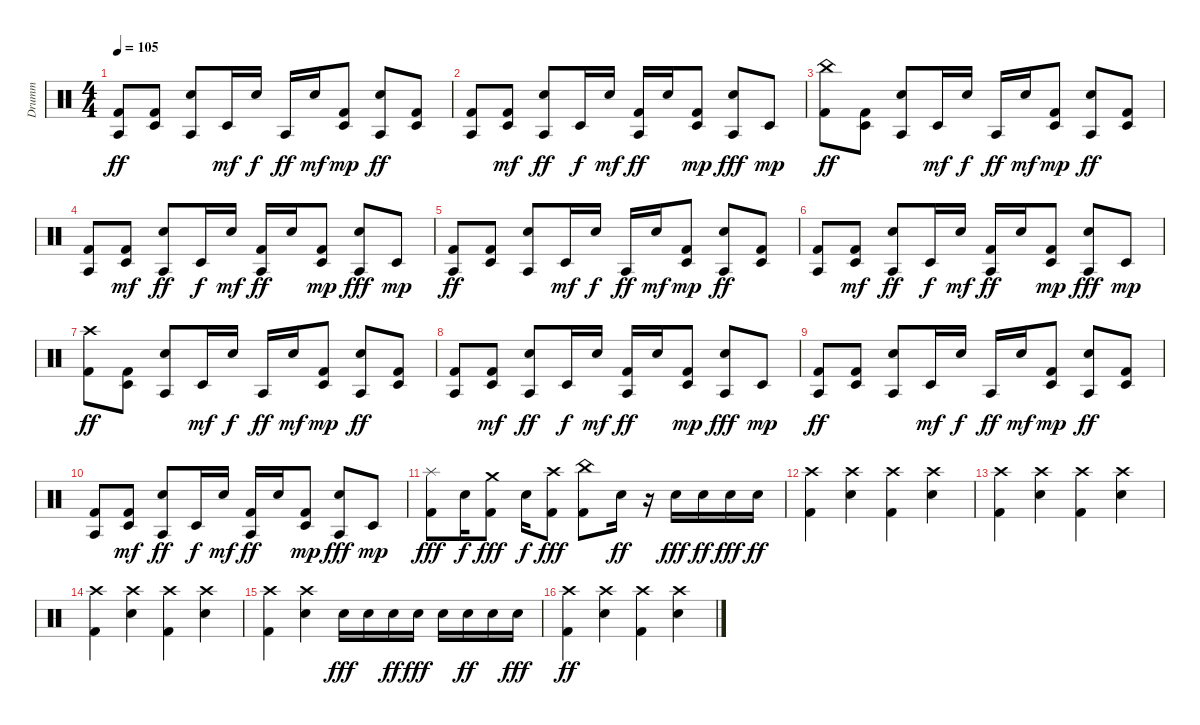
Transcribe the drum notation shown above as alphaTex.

\track ("Drumm" "Drumm") {instrument percussion}
\staff {score}
\articulation defaults
\ts (4 4)
\tempo 105
\clef neutral
\ks c
("Kick (hit) 2" "Agogo tow (hit)").8{dy ff} ("Kick (hit) 2" "Timbale low (hit)").8 ("Snare (hit) 2" "Agogo tow (hit)").8 "Timbale low (hit)".16{dy mf} "Snare (hit) 2".16{dy f} "Agogo tow (hit)".16{dy ff} "Snare (hit) 2".16{dy mf} ("Kick (hit) 2" "Timbale low (hit)").8{dy mp} ("Snare (hit) 2" "Agogo tow (hit)").8{dy ff} ("Kick (hit) 2" "Timbale low (hit)").8 |
("Kick (hit) 2" "Agogo tow (hit)").8 ("Kick (hit) 2" "Timbale low (hit)").8{dy mf} ("Snare (hit) 2" "Agogo tow (hit)").8{dy ff} "Timbale low (hit)".16{dy f} "Snare (hit) 2".16{dy mf} ("Kick (hit) 2" "Agogo tow (hit)").16{dy ff} "Snare (hit) 2".16 ("Kick (hit) 2" "Timbale low (hit)").8{dy mp} ("Snare (hit) 2" "Agogo tow (hit)").8{dy fff} "Timbale low (hit)".8{dy mp} |
("Kick (hit) 2" "China (hit)").8{dy ff} ("Kick (hit) 2" "Timbale low (hit)").8 ("Snare (hit) 2" "Agogo tow (hit)").8 "Timbale low (hit)".16{dy mf} "Snare (hit) 2".16{dy f} "Agogo tow (hit)".16{dy ff} "Snare (hit) 2".16{dy mf} ("Kick (hit) 2" "Timbale low (hit)").8{dy mp} ("Snare (hit) 2" "Agogo tow (hit)").8{dy ff} ("Kick (hit) 2" "Timbale low (hit)").8 |
("Kick (hit) 2" "Agogo tow (hit)").8 ("Kick (hit) 2" "Timbale low (hit)").8{dy mf} ("Snare (hit) 2" "Agogo tow (hit)").8{dy ff} "Timbale low (hit)".16{dy f} "Snare (hit) 2".16{dy mf} ("Kick (hit) 2" "Agogo tow (hit)").16{dy ff} "Snare (hit) 2".16 ("Kick (hit) 2" "Timbale low (hit)").8{dy mp} ("Snare (hit) 2" "Agogo tow (hit)").8{dy fff} "Timbale low (hit)".8{dy mp} |
("Kick (hit) 2" "Agogo tow (hit)").8{dy ff} ("Kick (hit) 2" "Timbale low (hit)").8 ("Snare (hit) 2" "Agogo tow (hit)").8 "Timbale low (hit)".16{dy mf} "Snare (hit) 2".16{dy f} "Agogo tow (hit)".16{dy ff} "Snare (hit) 2".16{dy mf} ("Kick (hit) 2" "Timbale low (hit)").8{dy mp} ("Snare (hit) 2" "Agogo tow (hit)").8{dy ff} ("Kick (hit) 2" "Timbale low (hit)").8 |
("Kick (hit) 2" "Agogo tow (hit)").8 ("Kick (hit) 2" "Timbale low (hit)").8{dy mf} ("Snare (hit) 2" "Agogo tow (hit)").8{dy ff} "Timbale low (hit)".16{dy f} "Snare (hit) 2".16{dy mf} ("Kick (hit) 2" "Agogo tow (hit)").16{dy ff} "Snare (hit) 2".16 ("Kick (hit) 2" "Timbale low (hit)").8{dy mp} ("Snare (hit) 2" "Agogo tow (hit)").8{dy fff} "Timbale low (hit)".8{dy mp} |
("Kick (hit) 2" "Crash high (hit)").8{dy ff} ("Kick (hit) 2" "Timbale low (hit)").8 ("Snare (hit) 2" "Agogo tow (hit)").8 "Timbale low (hit)".16{dy mf} "Snare (hit) 2".16{dy f} "Agogo tow (hit)".16{dy ff} "Snare (hit) 2".16{dy mf} ("Kick (hit) 2" "Timbale low (hit)").8{dy mp} ("Snare (hit) 2" "Agogo tow (hit)").8{dy ff} ("Kick (hit) 2" "Timbale low (hit)").8 |
("Kick (hit) 2" "Agogo tow (hit)").8 ("Kick (hit) 2" "Timbale low (hit)").8{dy mf} ("Snare (hit) 2" "Agogo tow (hit)").8{dy ff} "Timbale low (hit)".16{dy f} "Snare (hit) 2".16{dy mf} ("Kick (hit) 2" "Agogo tow (hit)").16{dy ff} "Snare (hit) 2".16 ("Kick (hit) 2" "Timbale low (hit)").8{dy mp} ("Snare (hit) 2" "Agogo tow (hit)").8{dy fff} "Timbale low (hit)".8{dy mp} |
("Kick (hit) 2" "Agogo tow (hit)").8{dy ff} ("Kick (hit) 2" "Timbale low (hit)").8 ("Snare (hit) 2" "Agogo tow (hit)").8 "Timbale low (hit)".16{dy mf} "Snare (hit) 2".16{dy f} "Agogo tow (hit)".16{dy ff} "Snare (hit) 2".16{dy mf} ("Kick (hit) 2" "Timbale low (hit)").8{dy mp} ("Snare (hit) 2" "Agogo tow (hit)").8{dy ff} ("Kick (hit) 2" "Timbale low (hit)").8 |
("Kick (hit) 2" "Agogo tow (hit)").8 ("Kick (hit) 2" "Timbale low (hit)").8{dy mf} ("Snare (hit) 2" "Agogo tow (hit)").8{dy ff} "Timbale low (hit)".16{dy f} "Snare (hit) 2".16{dy mf} ("Kick (hit) 2" "Agogo tow (hit)").16{dy ff} "Snare (hit) 2".16 ("Kick (hit) 2" "Timbale low (hit)").8{dy mp} ("Snare (hit) 2" "Agogo tow (hit)").8{dy fff} "Timbale low (hit)".8{dy mp} |
("Kick (hit) 2" "Splash (hit)").8{dy fff} "Snare (hit) 2".16{dy f} ("Kick (hit) 2" "Crash medium (hit)").8{dy fff} "Hand Clap (hit)".16{dy f} ("Kick (hit) 2" "Crash high (hit)").8{dy fff} ("Kick (hit) 2" "China (hit)").8 "Snare (hit) 2".16{dy ff} r.16 "Snare (hit) 2".16{dy fff} "Snare (hit) 2".16{dy ff} "Snare (hit) 2".16{dy fff} "Snare (hit) 2".16{dy ff} |
("Kick (hit) 2" "Crash high (hit)").4 ("Snare (hit) 2" "Crash high (hit)").4 ("Kick (hit) 2" "Crash high (hit)").4 ("Snare (hit) 2" "Crash high (hit)").4 |
("Kick (hit) 2" "Crash high (hit)").4 ("Snare (hit) 2" "Crash high (hit)").4 ("Kick (hit) 2" "Crash high (hit)").4 ("Snare (hit) 2" "Crash high (hit)").4 |
("Kick (hit) 2" "Crash high (hit)").4 ("Snare (hit) 2" "Crash high (hit)").4 ("Kick (hit) 2" "Crash high (hit)").4 ("Snare (hit) 2" "Crash high (hit)").4 |
("Kick (hit) 2" "Crash high (hit)").4 ("Snare (hit) 2" "Crash high (hit)").4 "Snare (hit) 2".16{dy fff} "Snare (hit) 2".16 "Snare (hit) 2".16{dy ff} "Snare (hit) 2".16{dy fff} "Snare (hit) 2".16 "Snare (hit) 2".16{dy ff} "Snare (hit) 2".16 "Snare (hit) 2".16{dy fff} |
("Kick (hit) 2" "Crash high (hit)").4{dy ff} ("Snare (hit) 2" "Crash high (hit)").4 ("Kick (hit) 2" "Crash high (hit)").4 ("Snare (hit) 2" "Crash high (hit)").4
